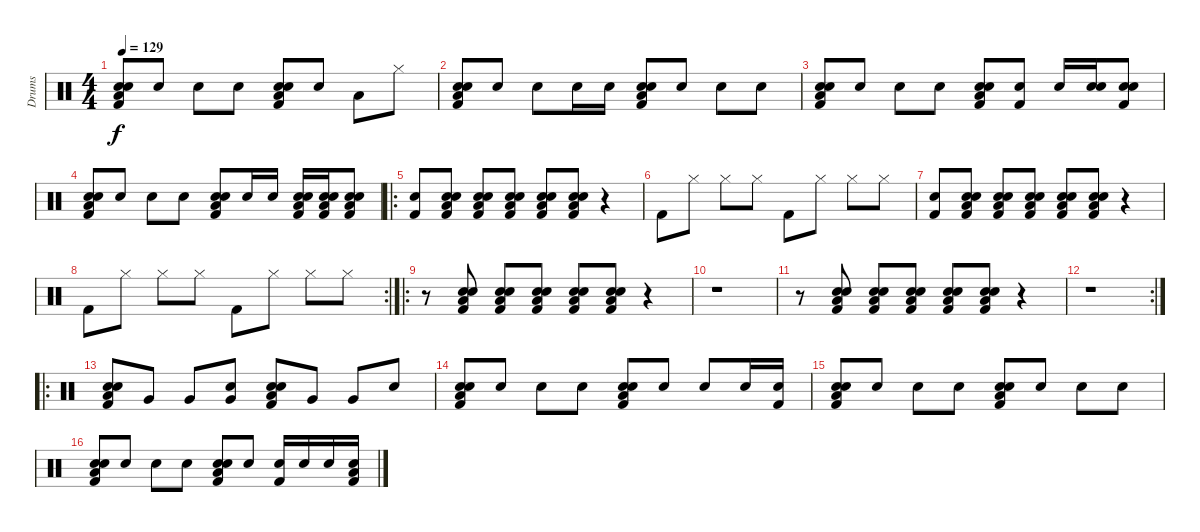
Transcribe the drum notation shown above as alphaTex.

\track ("Drums" "Drums") {instrument percussion}
\staff {score}
\articulation defaults
\ts (4 4)
\tempo 129
\clef neutral
\ks c
("Snare (hit) 2" "Low Tom (hit)" "Snare (hit) 2" "Kick (hit) 2").8{dy f} "Snare (hit) 2".8 "Snare (hit) 2".8 "Snare (hit) 2".8 ("Snare (hit) 2" "Low Tom (hit)" "Snare (hit) 2" "Kick (hit) 2").8 "Snare (hit) 2".8 "Low Floor Tom (hit)".8 "Hi-Hat (closed)".8 |
("Snare (hit) 2" "Low Tom (hit)" "Snare (hit) 2" "Kick (hit) 2").8 "Snare (hit) 2".8 "Snare (hit) 2".8 "Snare (hit) 2".16 "Snare (hit) 2".16 ("Snare (hit) 2" "Low Tom (hit)" "Snare (hit) 2" "Kick (hit) 2").8 "Snare (hit) 2".8 "Snare (hit) 2".8 "Snare (hit) 2".8 |
("Snare (hit) 2" "Low Tom (hit)" "Snare (hit) 2" "Kick (hit) 2").8 "Snare (hit) 2".8 "Snare (hit) 2".8 "Snare (hit) 2".8 ("Snare (hit) 2" "Low Tom (hit)" "Snare (hit) 2" "Kick (hit) 2").8 ("Snare (hit) 2" "Kick (hit) 2").8 "Snare (hit) 2".16 ("Snare (hit) 2" "Snare (hit) 2").16 ("Snare (hit) 2" "Snare (hit) 2" "Kick (hit) 2").8 |
("Snare (hit) 2" "Low Tom (hit)" "Snare (hit) 2" "Kick (hit) 2").8 "Snare (hit) 2".8 "Snare (hit) 2".8 "Snare (hit) 2".8 ("Snare (hit) 2" "Low Tom (hit)" "Snare (hit) 2" "Kick (hit) 2").8 "Snare (hit) 2".16 "Snare (hit) 2".16 ("Snare (hit) 2" "Low Tom (hit)" "Snare (hit) 2" "Kick (hit) 2").16 ("Snare (hit) 2" "Low Tom (hit)" "Snare (hit) 2" "Kick (hit) 2").16 ("Snare (hit) 2" "Low Tom (hit)" "Snare (hit) 2" "Kick (hit) 2").8 |
\ro
("Snare (hit) 2" "Kick (hit) 2").8 ("Snare (hit) 2" "Low Tom (hit)" "Snare (hit) 2" "Kick (hit) 2").8 ("Snare (hit) 2" "Low Tom (hit)" "Snare (hit) 2" "Kick (hit) 2").8 ("Snare (hit) 2" "Low Tom (hit)" "Snare (hit) 2" "Kick (hit) 2").8 ("Snare (hit) 2" "Low Tom (hit)" "Snare (hit) 2" "Kick (hit) 2").8 ("Snare (hit) 2" "Low Tom (hit)" "Snare (hit) 2" "Kick (hit) 2").8 r.4 |
"Kick (hit) 2".8 "Hi-Hat (closed)".8 "Hi-Hat (closed)".8 "Hi-Hat (closed)".8 "Kick (hit) 2".8 "Hi-Hat (closed)".8 "Hi-Hat (closed)".8 "Hi-Hat (closed)".8 |
("Snare (hit) 2" "Kick (hit) 2").8 ("Snare (hit) 2" "Low Tom (hit)" "Snare (hit) 2" "Kick (hit) 2").8 ("Snare (hit) 2" "Low Tom (hit)" "Snare (hit) 2" "Kick (hit) 2").8 ("Snare (hit) 2" "Low Tom (hit)" "Snare (hit) 2" "Kick (hit) 2").8 ("Snare (hit) 2" "Low Tom (hit)" "Snare (hit) 2" "Kick (hit) 2").8 ("Snare (hit) 2" "Low Tom (hit)" "Snare (hit) 2" "Kick (hit) 2").8 r.4 |
\rc 2 "Kick (hit) 2".8 "Hi-Hat (closed)".8 "Hi-Hat (closed)".8 "Hi-Hat (closed)".8 "Kick (hit) 2".8 "Hi-Hat (closed)".8 "Hi-Hat (closed)".8 "Hi-Hat (closed)".8
|
\ro
r.8 ("Snare (hit) 2" "Low Tom (hit)" "Snare (hit) 2" "Kick (hit) 2").8 ("Snare (hit) 2" "Low Tom (hit)" "Snare (hit) 2" "Kick (hit) 2").8 ("Snare (hit) 2" "Low Tom (hit)" "Snare (hit) 2" "Kick (hit) 2").8 ("Snare (hit) 2" "Low Tom (hit)" "Snare (hit) 2" "Kick (hit) 2").8 ("Snare (hit) 2" "Low Tom (hit)" "Snare (hit) 2" "Kick (hit) 2").8 r.4 |
r.1 |
r.8 ("Snare (hit) 2" "Low Tom (hit)" "Snare (hit) 2" "Kick (hit) 2").8 ("Snare (hit) 2" "Low Tom (hit)" "Snare (hit) 2" "Kick (hit) 2").8 ("Snare (hit) 2" "Low Tom (hit)" "Snare (hit) 2" "Kick (hit) 2").8 ("Snare (hit) 2" "Low Tom (hit)" "Snare (hit) 2" "Kick (hit) 2").8 ("Snare (hit) 2" "Low Tom (hit)" "Snare (hit) 2" "Kick (hit) 2").8 r.4 |
\rc 2
r.1 |
\ro
("Snare (hit) 2" "Low Tom (hit)" "Snare (hit) 2" "Kick (hit) 2").8 "Very Low Tom (hit)".8 "Very Low Tom (hit)".8 ("Snare (hit) 2" "Very Low Tom (hit)").8 ("Snare (hit) 2" "Low Tom (hit)" "Snare (hit) 2" "Kick (hit) 2").8 "Very Low Tom (hit)".8 "Very Low Tom (hit)".8 "Snare (hit) 2".8 |
("Snare (hit) 2" "Low Tom (hit)" "Snare (hit) 2" "Kick (hit) 2").8 "Snare (hit) 2".8 "Snare (hit) 2".8 "Snare (hit) 2".8 ("Snare (hit) 2" "Low Tom (hit)" "Snare (hit) 2" "Kick (hit) 2").8 "Snare (hit) 2".8 "Snare (hit) 2".8 "Snare (hit) 2".16 ("Snare (hit) 2" "Kick (hit) 2").16 |
("Snare (hit) 2" "Low Tom (hit)" "Snare (hit) 2" "Kick (hit) 2").8 "Snare (hit) 2".8 "Snare (hit) 2".8 "Snare (hit) 2".8 ("Snare (hit) 2" "Low Tom (hit)" "Snare (hit) 2" "Kick (hit) 2").8 "Snare (hit) 2".8 "Snare (hit) 2".8 "Snare (hit) 2".8 |
("Snare (hit) 2" "Low Tom (hit)" "Snare (hit) 2" "Kick (hit) 2").8 "Snare (hit) 2".8 "Snare (hit) 2".8 "Snare (hit) 2".8 ("Snare (hit) 2" "Low Tom (hit)" "Snare (hit) 2" "Kick (hit) 2").8 "Snare (hit) 2".8 ("Snare (hit) 2" "Kick (hit) 2").16 "Snare (hit) 2".16 "Snare (hit) 2".16 ("Low Floor Tom (hit)" "Snare (hit) 2" "Kick (hit) 2").16
